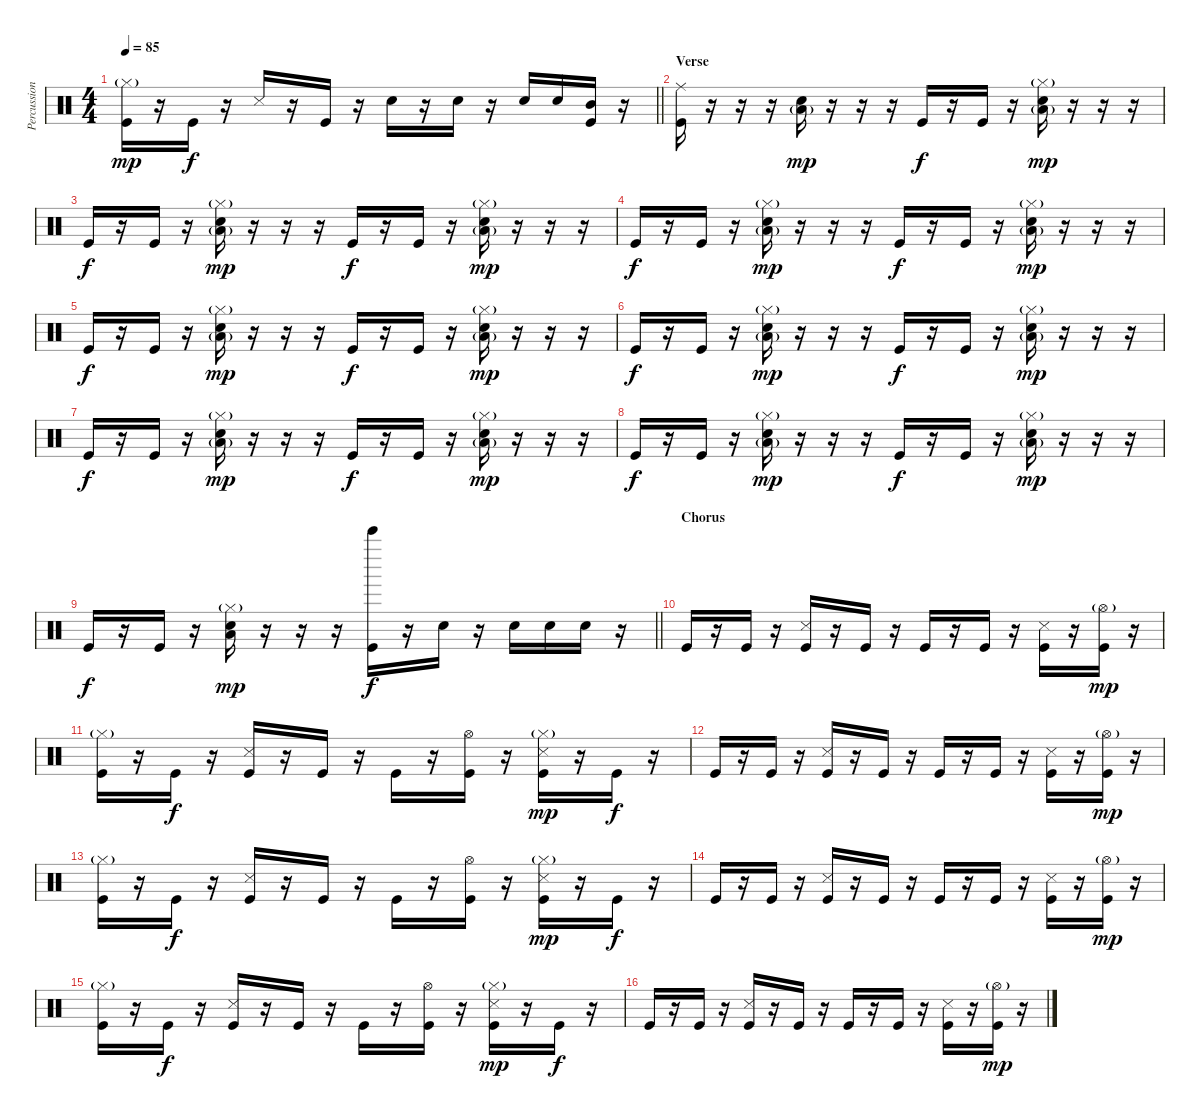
\track ("Percussion" "Percussion") {instrument percussion}
\staff {score}
\articulation defaults
\ts (4 4)
\tempo 85
\clef neutral
\barLineRight lightlight
\ks c
("Hi-Hat (closed)"{g} "Kick (hit)").16{dy mp} r.16 "Kick (hit)".16{dy f} r.16 "Snare (side stick) 3".16 r.16 "Kick (hit)".16 r.16 "Snare (hit) 2".16 r.16 "Snare (hit) 2".16 r.16 "Snare (hit) 2".16 "Snare (hit) 2".16 ("Mid Tom (hit)" "Kick (hit)").16 r.16 |
\section ("" "Verse")
("Ride (middle)" "Kick (hit)").16 r.16 r.16 r.16 ("Low Tom (hit)"{g} "Snare (hit) 2").16{dy mp} r.16 r.16 r.16 "Kick (hit)".16{dy f} r.16 "Kick (hit)".16 r.16 ("Hi-Hat (closed)"{g} "Low Tom (hit)"{g} "Snare (hit) 2").16{dy mp} r.16 r.16 r.16 |
"Kick (hit)".16{dy f} r.16 "Kick (hit)".16 r.16 ("Hi-Hat (closed)"{g} "Low Tom (hit)"{g} "Snare (hit) 2").16{dy mp} r.16 r.16 r.16 "Kick (hit)".16{dy f} r.16 "Kick (hit)".16 r.16 ("Hi-Hat (closed)"{g} "Low Tom (hit)"{g} "Snare (hit) 2").16{dy mp} r.16 r.16 r.16 |
"Kick (hit)".16{dy f} r.16 "Kick (hit)".16 r.16 ("Hi-Hat (closed)"{g} "Low Tom (hit)"{g} "Snare (hit) 2").16{dy mp} r.16 r.16 r.16 "Kick (hit)".16{dy f} r.16 "Kick (hit)".16 r.16 ("Hi-Hat (closed)"{g} "Low Tom (hit)"{g} "Snare (hit) 2").16{dy mp} r.16 r.16 r.16 |
"Kick (hit)".16{dy f} r.16 "Kick (hit)".16 r.16 ("Hi-Hat (closed)"{g} "Low Tom (hit)"{g} "Snare (hit) 2").16{dy mp} r.16 r.16 r.16 "Kick (hit)".16{dy f} r.16 "Kick (hit)".16 r.16 ("Hi-Hat (closed)"{g} "Low Tom (hit)"{g} "Snare (hit) 2").16{dy mp} r.16 r.16 r.16 |
"Kick (hit)".16{dy f} r.16 "Kick (hit)".16 r.16 ("Hi-Hat (closed)"{g} "Low Tom (hit)"{g} "Snare (hit) 2").16{dy mp} r.16 r.16 r.16 "Kick (hit)".16{dy f} r.16 "Kick (hit)".16 r.16 ("Hi-Hat (closed)"{g} "Low Tom (hit)"{g} "Snare (hit) 2").16{dy mp} r.16 r.16 r.16 |
"Kick (hit)".16{dy f} r.16 "Kick (hit)".16 r.16 ("Hi-Hat (closed)"{g} "Low Tom (hit)"{g} "Snare (hit) 2").16{dy mp} r.16 r.16 r.16 "Kick (hit)".16{dy f} r.16 "Kick (hit)".16 r.16 ("Hi-Hat (closed)"{g} "Low Tom (hit)"{g} "Snare (hit) 2").16{dy mp} r.16 r.16 r.16 |
"Kick (hit)".16{dy f} r.16 "Kick (hit)".16 r.16 ("Hi-Hat (closed)"{g} "Low Tom (hit)"{g} "Snare (hit) 2").16{dy mp} r.16 r.16 r.16 "Kick (hit)".16{dy f} r.16 "Kick (hit)".16 r.16 ("Hi-Hat (closed)"{g} "Low Tom (hit)"{g} "Snare (hit) 2").16{dy mp} r.16 r.16 r.16 |
\barLineRight lightlight "Kick (hit)".16{dy f}
r.16 "Kick (hit)".16 r.16 ("Hi-Hat (closed)"{g} "Low Tom (hit)" "Snare (hit) 2").16{dy mp} r.16 r.16 r.16 ("Bell Tree (hit)" "Kick (hit)").16{dy f} r.16 "Snare (hit) 2".16 r.16 "Snare (hit) 2".16 "Snare (hit) 2".16 "Snare (hit) 2".16 r.16 |
\section ("" "Chorus")
"Kick (hit)".16 r.16 "Kick (hit)".16 r.16 ("Snare (side stick) 3" "Kick (hit)").16 r.16 "Kick (hit)".16 r.16 "Kick (hit)".16 r.16 "Kick (hit)".16 r.16 ("Snare (side stick) 3" "Kick (hit)").16 r.16 ("Hi-Hat (open)"{g} "Kick (hit)").16{dy mp} r.16 |
("Hi-Hat (closed)"{g} "Kick (hit)").16 r.16 "Kick (hit)".16{dy f} r.16 ("Snare (side stick) 3" "Kick (hit)").16 r.16 "Kick (hit)".16 r.16 "Kick (hit)".16 r.16 ("Hi-Hat (open)" "Kick (hit)").16 r.16 ("Hi-Hat (closed)"{g} "Snare (side stick) 3" "Kick (hit)").16{dy mp} r.16 "Kick (hit)".16{dy f} r.16 |
"Kick (hit)".16 r.16 "Kick (hit)".16 r.16 ("Snare (side stick) 3" "Kick (hit)").16 r.16 "Kick (hit)".16 r.16 "Kick (hit)".16 r.16 "Kick (hit)".16 r.16 ("Snare (side stick) 3" "Kick (hit)").16 r.16 ("Hi-Hat (open)"{g} "Kick (hit)").16{dy mp} r.16 |
("Hi-Hat (closed)"{g} "Kick (hit)").16 r.16 "Kick (hit)".16{dy f} r.16 ("Snare (side stick) 3" "Kick (hit)").16 r.16 "Kick (hit)".16 r.16 "Kick (hit)".16 r.16 ("Hi-Hat (open)" "Kick (hit)").16 r.16 ("Hi-Hat (closed)"{g} "Snare (side stick) 3" "Kick (hit)").16{dy mp} r.16 "Kick (hit)".16{dy f} r.16 |
"Kick (hit)".16 r.16 "Kick (hit)".16 r.16 ("Snare (side stick) 3" "Kick (hit)").16 r.16 "Kick (hit)".16 r.16 "Kick (hit)".16 r.16 "Kick (hit)".16 r.16 ("Snare (side stick) 3" "Kick (hit)").16 r.16 ("Hi-Hat (open)"{g} "Kick (hit)").16{dy mp} r.16 |
("Hi-Hat (closed)"{g} "Kick (hit)").16 r.16 "Kick (hit)".16{dy f} r.16 ("Snare (side stick) 3" "Kick (hit)").16 r.16 "Kick (hit)".16 r.16 "Kick (hit)".16 r.16 ("Hi-Hat (open)" "Kick (hit)").16 r.16 ("Hi-Hat (closed)"{g} "Snare (side stick) 3" "Kick (hit)").16{dy mp} r.16 "Kick (hit)".16{dy f} r.16 |
"Kick (hit)".16 r.16 "Kick (hit)".16 r.16 ("Snare (side stick) 3" "Kick (hit)").16 r.16 "Kick (hit)".16 r.16 "Kick (hit)".16 r.16 "Kick (hit)".16 r.16 ("Snare (side stick) 3" "Kick (hit)").16 r.16 ("Hi-Hat (open)"{g} "Kick (hit)").16{dy mp} r.16
